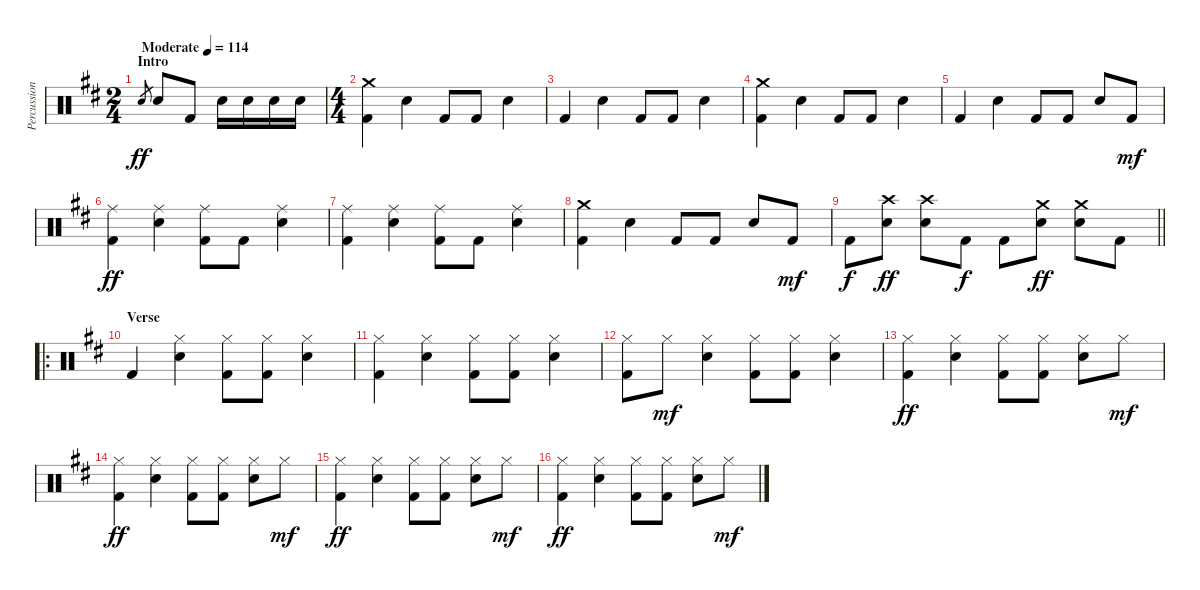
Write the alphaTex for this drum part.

\track ("Percussion" "Percussion") {instrument percussion}
\staff {score}
\articulation defaults
\ts (2 4)
\section ("" "Intro")
\tempo (114 "Moderate")
\clef neutral
\ks d "Snare (hit) 2".8{gr dy ff} "Snare (hit) 2".8 "Kick (hit) 2".8 "Snare (hit) 2".16 "Snare (hit) 2".16 "Snare (hit) 2".16 "Snare (hit) 2".16
|
\ts (4 4)
("Crash medium (hit)" "Kick (hit) 2").4 "Snare (hit) 2".4 "Kick (hit) 2".8 "Kick (hit) 2".8 "Snare (hit) 2".4 |
"Kick (hit) 2".4 "Snare (hit) 2".4 "Kick (hit) 2".8 "Kick (hit) 2".8 "Snare (hit) 2".4 |
("Crash medium (hit)" "Kick (hit) 2").4 "Snare (hit) 2".4 "Kick (hit) 2".8 "Kick (hit) 2".8 "Snare (hit) 2".4 |
"Kick (hit) 2".4 "Snare (hit) 2".4 "Kick (hit) 2".8 "Kick (hit) 2".8 "Snare (hit) 2".8 "Kick (hit) 2".8{dy mf} |
("Ride (middle)" "Kick (hit) 2").4{dy ff} ("Ride (middle)" "Snare (hit) 2").4 ("Ride (middle)" "Kick (hit) 2").8 "Kick (hit) 2".8 ("Ride (middle)" "Snare (hit) 2").4 |
("Ride (middle)" "Kick (hit) 2").4 ("Ride (middle)" "Snare (hit) 2").4 ("Ride (middle)" "Kick (hit) 2").8 "Kick (hit) 2".8 ("Ride (middle)" "Snare (hit) 2").4 |
("Crash medium (hit)" "Kick (hit) 2").4 "Snare (hit) 2".4 "Kick (hit) 2".8 "Kick (hit) 2".8 "Snare (hit) 2".8 "Kick (hit) 2".8{dy mf} |
\barLineRight lightlight "Kick (hit) 2".8{dy f}
("Crash high (hit)" "Snare (hit) 2").8{dy ff} ("Crash high (hit)" "Snare (hit) 2").8 "Kick (hit) 2".8{dy f} "Kick (hit) 2".8 ("Crash medium (hit)" "Snare (hit) 2").8{dy ff} ("Crash medium (hit)" "Snare (hit) 2").8 "Kick (hit) 2".8 |
\ro
\section ("" "Verse")
"Kick (hit) 2".4 ("Hi-Hat (closed)" "Snare (hit) 2").4 ("Hi-Hat (closed)" "Kick (hit) 2").8 ("Hi-Hat (closed)" "Kick (hit) 2").8 ("Hi-Hat (closed)" "Snare (hit) 2").4 |
("Hi-Hat (closed)" "Kick (hit) 2").4 ("Hi-Hat (closed)" "Snare (hit) 2").4 ("Hi-Hat (closed)" "Kick (hit) 2").8 ("Hi-Hat (closed)" "Kick (hit) 2").8 ("Hi-Hat (closed)" "Snare (hit) 2").4 |
("Hi-Hat (closed)" "Kick (hit) 2").8 "Hi-Hat (closed)".8{dy mf} ("Hi-Hat (closed)" "Snare (hit) 2").4 ("Hi-Hat (closed)" "Kick (hit) 2").8 ("Hi-Hat (closed)" "Kick (hit) 2").8 ("Hi-Hat (closed)" "Snare (hit) 2").4 |
("Hi-Hat (closed)" "Kick (hit) 2").4{dy ff} ("Hi-Hat (closed)" "Snare (hit) 2").4 ("Hi-Hat (closed)" "Kick (hit) 2").8 ("Hi-Hat (closed)" "Kick (hit) 2").8 ("Hi-Hat (closed)" "Snare (hit) 2").8 "Hi-Hat (closed)".8{dy mf} |
("Hi-Hat (closed)" "Kick (hit) 2").4{dy ff} ("Hi-Hat (closed)" "Snare (hit) 2").4 ("Hi-Hat (closed)" "Kick (hit) 2").8 ("Hi-Hat (closed)" "Kick (hit) 2").8 ("Hi-Hat (closed)" "Snare (hit) 2").8 "Hi-Hat (closed)".8{dy mf} |
("Hi-Hat (closed)" "Kick (hit) 2").4{dy ff} ("Hi-Hat (closed)" "Snare (hit) 2").4 ("Hi-Hat (closed)" "Kick (hit) 2").8 ("Hi-Hat (closed)" "Kick (hit) 2").8 ("Hi-Hat (closed)" "Snare (hit) 2").8 "Hi-Hat (closed)".8{dy mf} |
("Hi-Hat (closed)" "Kick (hit) 2").4{dy ff} ("Hi-Hat (closed)" "Snare (hit) 2").4 ("Hi-Hat (closed)" "Kick (hit) 2").8 ("Hi-Hat (closed)" "Kick (hit) 2").8 ("Hi-Hat (closed)" "Snare (hit) 2").8 "Hi-Hat (closed)".8{dy mf}
